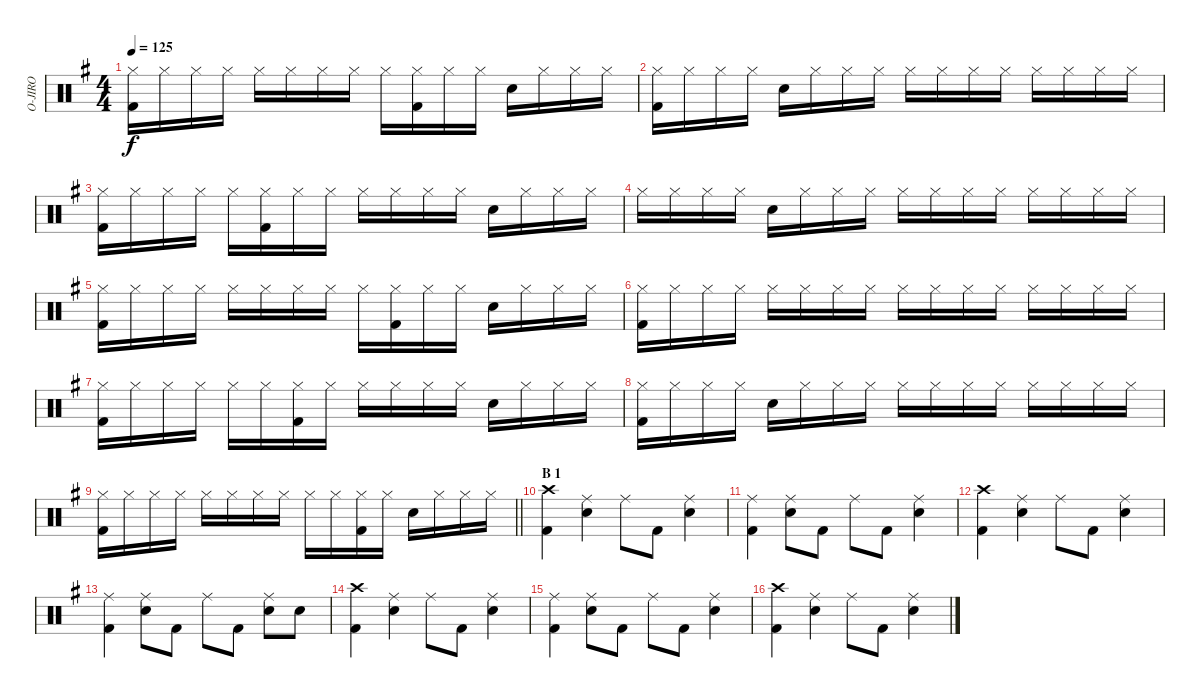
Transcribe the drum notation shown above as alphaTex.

\track ("O-JIRO" "O-JIRO") {instrument percussion}
\staff {score}
\articulation defaults
\ts (4 4)
\tempo 125
\clef neutral
\ks g
("Hi-Hat (closed)" "Kick (hit) 2").16{dy f} "Hi-Hat (closed)".16 "Hi-Hat (closed)".16 "Hi-Hat (closed)".16 "Hi-Hat (closed)".16 "Hi-Hat (closed)".16 "Hi-Hat (closed)".16 "Hi-Hat (closed)".16 "Hi-Hat (closed)".16 ("Hi-Hat (closed)" "Kick (hit) 2").16 "Hi-Hat (closed)".16 "Hi-Hat (closed)".16 "Snare (hit) 2".16 "Hi-Hat (closed)".16 "Hi-Hat (closed)".16 "Hi-Hat (closed)".16 |
("Hi-Hat (closed)" "Kick (hit) 2").16 "Hi-Hat (closed)".16 "Hi-Hat (closed)".16 "Hi-Hat (closed)".16 "Snare (hit) 2".16 "Hi-Hat (closed)".16 "Hi-Hat (closed)".16 "Hi-Hat (closed)".16 "Hi-Hat (closed)".16 "Hi-Hat (closed)".16 "Hi-Hat (closed)".16 "Hi-Hat (closed)".16 "Hi-Hat (closed)".16 "Hi-Hat (closed)".16 "Hi-Hat (closed)".16 "Hi-Hat (closed)".16 |
("Hi-Hat (closed)" "Kick (hit) 2").16 "Hi-Hat (closed)".16 "Hi-Hat (closed)".16 "Hi-Hat (closed)".16 "Hi-Hat (closed)".16 ("Hi-Hat (closed)" "Kick (hit) 2").16 "Hi-Hat (closed)".16 "Hi-Hat (closed)".16 "Hi-Hat (closed)".16 "Hi-Hat (closed)".16 "Hi-Hat (closed)".16 "Hi-Hat (closed)".16 "Snare (hit) 2".16 "Hi-Hat (closed)".16 "Hi-Hat (closed)".16 "Hi-Hat (closed)".16 |
"Hi-Hat (closed)".16 "Hi-Hat (closed)".16 "Hi-Hat (closed)".16 "Hi-Hat (closed)".16 "Snare (hit) 2".16 "Hi-Hat (closed)".16 "Hi-Hat (closed)".16 "Hi-Hat (closed)".16 "Hi-Hat (closed)".16 "Hi-Hat (closed)".16 "Hi-Hat (closed)".16 "Hi-Hat (closed)".16 "Hi-Hat (closed)".16 "Hi-Hat (closed)".16 "Hi-Hat (closed)".16 "Hi-Hat (closed)".16 |
("Hi-Hat (closed)" "Kick (hit) 2").16 "Hi-Hat (closed)".16 "Hi-Hat (closed)".16 "Hi-Hat (closed)".16 "Hi-Hat (closed)".16 "Hi-Hat (closed)".16 "Hi-Hat (closed)".16 "Hi-Hat (closed)".16 "Hi-Hat (closed)".16 ("Hi-Hat (closed)" "Kick (hit) 2").16 "Hi-Hat (closed)".16 "Hi-Hat (closed)".16 "Snare (hit) 2".16 "Hi-Hat (closed)".16 "Hi-Hat (closed)".16 "Hi-Hat (closed)".16 |
("Hi-Hat (closed)" "Kick (hit) 2").16 "Hi-Hat (closed)".16 "Hi-Hat (closed)".16 "Hi-Hat (closed)".16 "Hi-Hat (closed)".16 "Hi-Hat (closed)".16 "Hi-Hat (closed)".16 "Hi-Hat (closed)".16 "Hi-Hat (closed)".16 "Hi-Hat (closed)".16 "Hi-Hat (closed)".16 "Hi-Hat (closed)".16 "Hi-Hat (closed)".16 "Hi-Hat (closed)".16 "Hi-Hat (closed)".16 "Hi-Hat (closed)".16 |
("Hi-Hat (closed)" "Kick (hit) 2").16 "Hi-Hat (closed)".16 "Hi-Hat (closed)".16 "Hi-Hat (closed)".16 "Hi-Hat (closed)".16 "Hi-Hat (closed)".16 ("Hi-Hat (closed)" "Kick (hit) 2").16 "Hi-Hat (closed)".16 "Hi-Hat (closed)".16 "Hi-Hat (closed)".16 "Hi-Hat (closed)".16 "Hi-Hat (closed)".16 "Snare (hit) 2".16 "Hi-Hat (closed)".16 "Hi-Hat (closed)".16 "Hi-Hat (closed)".16 |
("Hi-Hat (closed)" "Kick (hit) 2").16 "Hi-Hat (closed)".16 "Hi-Hat (closed)".16 "Hi-Hat (closed)".16 "Snare (hit) 2".16 "Hi-Hat (closed)".16 "Hi-Hat (closed)".16 "Hi-Hat (closed)".16 "Hi-Hat (closed)".16 "Hi-Hat (closed)".16 "Hi-Hat (closed)".16 "Hi-Hat (closed)".16 "Hi-Hat (closed)".16 "Hi-Hat (closed)".16 "Hi-Hat (closed)".16 "Hi-Hat (closed)".16 |
\barLineRight lightlight
("Hi-Hat (closed)" "Kick (hit) 2").16 "Hi-Hat (closed)".16 "Hi-Hat (closed)".16 "Hi-Hat (closed)".16 "Hi-Hat (closed)".16 "Hi-Hat (closed)".16 "Hi-Hat (closed)".16 "Hi-Hat (closed)".16 "Hi-Hat (closed)".16 "Hi-Hat (closed)".16 ("Hi-Hat (closed)" "Kick (hit) 2").16 "Hi-Hat (closed)".16 "Snare (hit) 2".16 "Hi-Hat (closed)".16 "Hi-Hat (closed)".16 "Hi-Hat (closed)".16 |
\section ("" "B 1")
("Crash high (hit)" "Kick (hit) 2").4 ("Ride (middle)" "Snare (hit) 2").4 "Ride (middle)".8 "Kick (hit) 2".8 ("Ride (middle)" "Snare (hit) 2").4 |
("Ride (middle)" "Kick (hit) 2").4 ("Ride (middle)" "Snare (hit) 2").8 "Kick (hit) 2".8 "Ride (middle)".8 "Kick (hit) 2".8 ("Ride (middle)" "Snare (hit) 2").4 |
("Crash high (hit)" "Kick (hit) 2").4 ("Ride (middle)" "Snare (hit) 2").4 "Ride (middle)".8 "Kick (hit) 2".8 ("Ride (middle)" "Snare (hit) 2").4 |
("Ride (middle)" "Kick (hit) 2").4 ("Ride (middle)" "Snare (hit) 2").8 "Kick (hit) 2".8 "Ride (middle)".8 "Kick (hit) 2".8 ("Ride (middle)" "Snare (hit) 2").8 "Snare (hit) 2".8 |
("Crash high (hit)" "Kick (hit) 2").4 ("Ride (middle)" "Snare (hit) 2").4 "Ride (middle)".8 "Kick (hit) 2".8 ("Ride (middle)" "Snare (hit) 2").4 |
("Ride (middle)" "Kick (hit) 2").4 ("Ride (middle)" "Snare (hit) 2").8 "Kick (hit) 2".8 "Ride (middle)".8 "Kick (hit) 2".8 ("Ride (middle)" "Snare (hit) 2").4 |
("Crash high (hit)" "Kick (hit) 2").4 ("Ride (middle)" "Snare (hit) 2").4 "Ride (middle)".8 "Kick (hit) 2".8 ("Ride (middle)" "Snare (hit) 2").4
